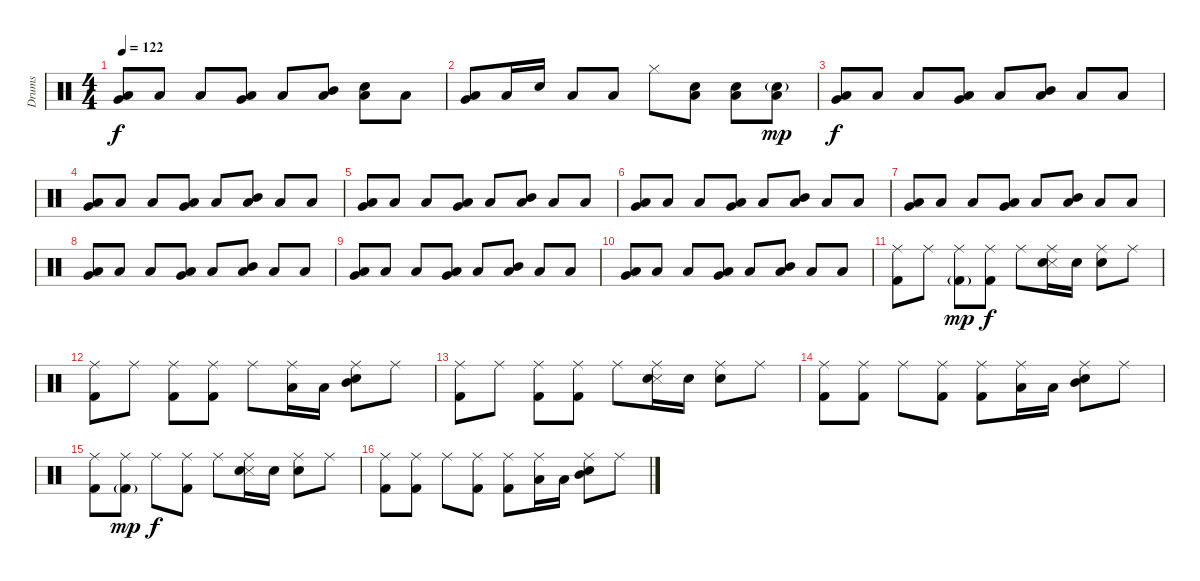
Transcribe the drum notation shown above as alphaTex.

\track ("Drums" "Drums") {instrument percussion}
\staff {score}
\articulation defaults
\ts (4 4)
\tempo 122
\clef neutral
\ks c
("Very Low Tom (hit)" "Low Floor Tom (hit)").8{dy f} "Low Floor Tom (hit)".8 "Low Floor Tom (hit)".8 ("Very Low Tom (hit)" "Low Floor Tom (hit)").8 "Low Floor Tom (hit)".8 ("Mid Tom (hit)" "Low Floor Tom (hit)").8 ("Snare (hit) 2" "Low Floor Tom (hit)").8 "Low Floor Tom (hit)".8 |
("Very Low Tom (hit)" "Low Floor Tom (hit)").8 "Low Floor Tom (hit)".16 "Snare (hit) 2".16 "Low Floor Tom (hit)".8 "Low Floor Tom (hit)".8 "Hi-Hat (closed)".8 ("Snare (hit) 2" "Low Floor Tom (hit)").8 ("Snare (hit) 2" "Low Floor Tom (hit)").8 ("Snare (hit) 2"{g} "Low Floor Tom (hit)").8{dy mp} |
("Very Low Tom (hit)" "Low Floor Tom (hit)").8{dy f} "Low Floor Tom (hit)".8 "Low Floor Tom (hit)".8 ("Very Low Tom (hit)" "Low Floor Tom (hit)").8 "Low Floor Tom (hit)".8 ("Mid Tom (hit)" "Low Floor Tom (hit)").8 "Low Floor Tom (hit)".8 "Low Floor Tom (hit)".8 |
("Very Low Tom (hit)" "Low Floor Tom (hit)").8 "Low Floor Tom (hit)".8 "Low Floor Tom (hit)".8 ("Very Low Tom (hit)" "Low Floor Tom (hit)").8 "Low Floor Tom (hit)".8 ("Mid Tom (hit)" "Low Floor Tom (hit)").8 "Low Floor Tom (hit)".8 "Low Floor Tom (hit)".8 |
("Very Low Tom (hit)" "Low Floor Tom (hit)").8 "Low Floor Tom (hit)".8 "Low Floor Tom (hit)".8 ("Very Low Tom (hit)" "Low Floor Tom (hit)").8 "Low Floor Tom (hit)".8 ("Mid Tom (hit)" "Low Floor Tom (hit)").8 "Low Floor Tom (hit)".8 "Low Floor Tom (hit)".8 |
("Very Low Tom (hit)" "Low Floor Tom (hit)").8 "Low Floor Tom (hit)".8 "Low Floor Tom (hit)".8 ("Very Low Tom (hit)" "Low Floor Tom (hit)").8 "Low Floor Tom (hit)".8 ("Mid Tom (hit)" "Low Floor Tom (hit)").8 "Low Floor Tom (hit)".8 "Low Floor Tom (hit)".8 |
("Very Low Tom (hit)" "Low Floor Tom (hit)").8 "Low Floor Tom (hit)".8 "Low Floor Tom (hit)".8 ("Very Low Tom (hit)" "Low Floor Tom (hit)").8 "Low Floor Tom (hit)".8 ("Mid Tom (hit)" "Low Floor Tom (hit)").8 "Low Floor Tom (hit)".8 "Low Floor Tom (hit)".8 |
("Very Low Tom (hit)" "Low Floor Tom (hit)").8 "Low Floor Tom (hit)".8 "Low Floor Tom (hit)".8 ("Very Low Tom (hit)" "Low Floor Tom (hit)").8 "Low Floor Tom (hit)".8 ("Mid Tom (hit)" "Low Floor Tom (hit)").8 "Low Floor Tom (hit)".8 "Low Floor Tom (hit)".8 |
("Very Low Tom (hit)" "Low Floor Tom (hit)").8 "Low Floor Tom (hit)".8 "Low Floor Tom (hit)".8 ("Very Low Tom (hit)" "Low Floor Tom (hit)").8 "Low Floor Tom (hit)".8 ("Mid Tom (hit)" "Low Floor Tom (hit)").8 "Low Floor Tom (hit)".8 "Low Floor Tom (hit)".8 |
("Very Low Tom (hit)" "Low Floor Tom (hit)").8 "Low Floor Tom (hit)".8 "Low Floor Tom (hit)".8 ("Very Low Tom (hit)" "Low Floor Tom (hit)").8 "Low Floor Tom (hit)".8 ("Mid Tom (hit)" "Low Floor Tom (hit)").8 "Low Floor Tom (hit)".8 "Low Floor Tom (hit)".8 |
("Ride (middle)" "Kick (hit) 2").8 "Ride (middle)".8 ("Ride (middle)" "Kick (hit) 2"{g}).8{dy mp} ("Ride (middle)" "Kick (hit) 2").8{dy f} "Ride (middle)".8 ("Ride (middle)" "Snare (side stick) 3" "Snare (hit) 2").16 "Snare (hit) 2".16 ("Ride (middle)" "Snare (hit) 2").8 "Ride (middle)".8 |
("Ride (middle)" "Kick (hit) 2").8 "Ride (middle)".8 ("Ride (middle)" "Kick (hit) 2").8 ("Ride (middle)" "Kick (hit) 2").8 "Ride (middle)".8 ("Ride (middle)" "Low Tom (hit)").16 "Low Tom (hit)".16 ("Ride (middle)" "Mid Tom (hit)" "Snare (hit) 2").8 "Ride (middle)".8 |
("Ride (middle)" "Kick (hit) 2").8 "Ride (middle)".8 ("Ride (middle)" "Kick (hit) 2").8 ("Ride (middle)" "Kick (hit) 2").8 "Ride (middle)".8 ("Ride (middle)" "Snare (side stick) 3" "Snare (hit) 2").16 "Snare (hit) 2".16 ("Ride (middle)" "Snare (hit) 2").8 "Ride (middle)".8 |
("Ride (middle)" "Kick (hit) 2").8 ("Ride (middle)" "Kick (hit) 2").8 "Ride (middle)".8 ("Ride (middle)" "Kick (hit) 2").8 ("Ride (middle)" "Kick (hit) 2").8 ("Ride (middle)" "Low Tom (hit)").16 "Low Tom (hit)".16 ("Ride (middle)" "Mid Tom (hit)" "Snare (hit) 2").8 "Ride (middle)".8 |
("Ride (middle)" "Kick (hit) 2").8 ("Ride (middle)" "Kick (hit) 2"{g}).8{dy mp} "Ride (middle)".8{dy f} ("Ride (middle)" "Kick (hit) 2").8 "Ride (middle)".8 ("Ride (middle)" "Snare (side stick) 3" "Snare (hit) 2").16 "Snare (hit) 2".16 ("Ride (middle)" "Snare (hit) 2").8 "Ride (middle)".8 |
("Ride (middle)" "Kick (hit) 2").8 ("Ride (middle)" "Kick (hit) 2").8 "Ride (middle)".8 ("Ride (middle)" "Kick (hit) 2").8 ("Ride (middle)" "Kick (hit) 2").8 ("Ride (middle)" "Low Tom (hit)").16 "Low Tom (hit)".16 ("Ride (middle)" "Mid Tom (hit)" "Snare (hit) 2").8 "Ride (middle)".8
